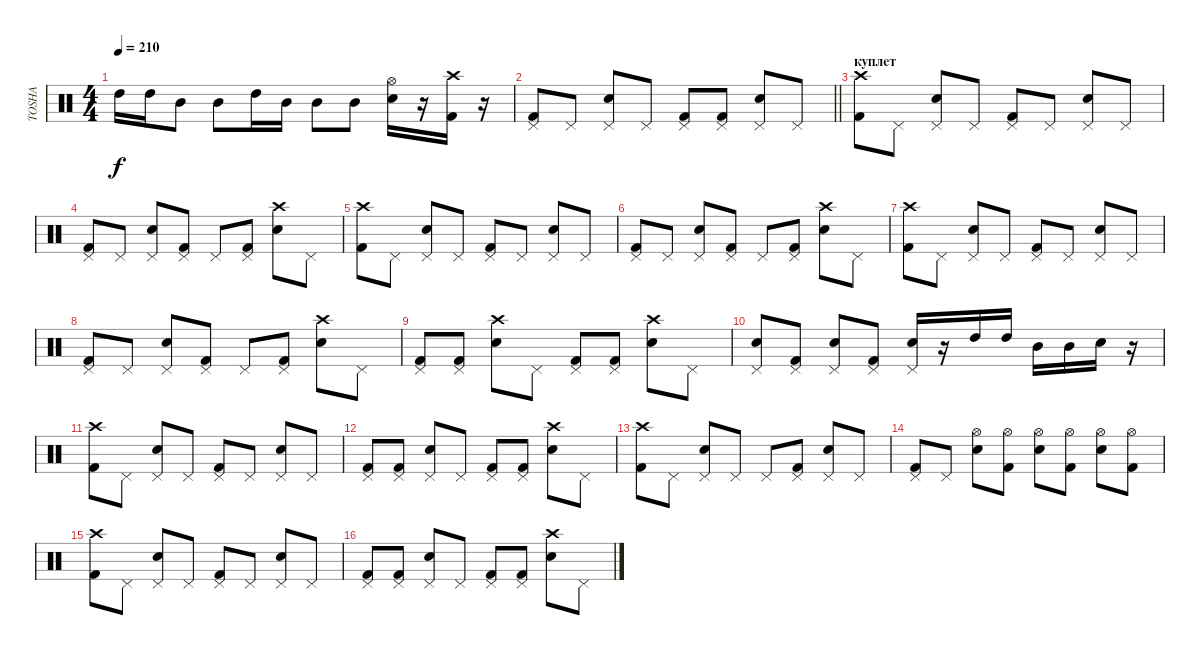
\track ("TOSHA" "TOSHA") {instrument percussion}
\staff {score}
\articulation defaults
\ts (4 4)
\tempo 210
\clef neutral
\ks c "High Tom (hit)".16{dy f} "High Tom (hit)".16 "Mid Tom (hit)".8 "Mid Tom (hit)".8 "High Tom (hit)".16 "Mid Tom (hit)".16 "Mid Tom (hit)".8 "Mid Tom (hit)".8
("Electric Snare (hit)" "Hi-Hat (open)").16 r.16 ("Kick (hit) 2" "Crash high (hit)").16 r.16 |
\barLineRight lightlight
("Kick (hit) 2" "Pedal Hi-Hat (hit)").8 "Pedal Hi-Hat (hit)".8 ("Electric Snare (hit)" "Pedal Hi-Hat (hit)").8 "Pedal Hi-Hat (hit)".8 ("Kick (hit) 2" "Pedal Hi-Hat (hit)").8 ("Kick (hit) 2" "Pedal Hi-Hat (hit)").8 ("Electric Snare (hit)" "Pedal Hi-Hat (hit)").8 "Pedal Hi-Hat (hit)".8 |
\section ("" "куплет")
("Kick (hit) 2" "Crash high (hit)").8 "Pedal Hi-Hat (hit)".8 ("Electric Snare (hit)" "Pedal Hi-Hat (hit)").8 "Pedal Hi-Hat (hit)".8 ("Kick (hit) 2" "Pedal Hi-Hat (hit)").8 "Pedal Hi-Hat (hit)".8 ("Electric Snare (hit)" "Pedal Hi-Hat (hit)").8 "Pedal Hi-Hat (hit)".8 |
("Kick (hit) 2" "Pedal Hi-Hat (hit)").8 "Pedal Hi-Hat (hit)".8 ("Electric Snare (hit)" "Pedal Hi-Hat (hit)").8 ("Kick (hit) 2" "Pedal Hi-Hat (hit)").8 "Pedal Hi-Hat (hit)".8 ("Kick (hit) 2" "Pedal Hi-Hat (hit)").8 ("Electric Snare (hit)" "Crash high (hit)").8 "Pedal Hi-Hat (hit)".8 |
("Kick (hit) 2" "Crash high (hit)").8 "Pedal Hi-Hat (hit)".8 ("Electric Snare (hit)" "Pedal Hi-Hat (hit)").8 "Pedal Hi-Hat (hit)".8 ("Kick (hit) 2" "Pedal Hi-Hat (hit)").8 "Pedal Hi-Hat (hit)".8 ("Electric Snare (hit)" "Pedal Hi-Hat (hit)").8 "Pedal Hi-Hat (hit)".8 |
("Kick (hit) 2" "Pedal Hi-Hat (hit)").8 "Pedal Hi-Hat (hit)".8 ("Electric Snare (hit)" "Pedal Hi-Hat (hit)").8 ("Kick (hit) 2" "Pedal Hi-Hat (hit)").8 "Pedal Hi-Hat (hit)".8 ("Kick (hit) 2" "Pedal Hi-Hat (hit)").8 ("Electric Snare (hit)" "Crash high (hit)").8 "Pedal Hi-Hat (hit)".8 |
("Kick (hit) 2" "Crash high (hit)").8 "Pedal Hi-Hat (hit)".8 ("Electric Snare (hit)" "Pedal Hi-Hat (hit)").8 "Pedal Hi-Hat (hit)".8 ("Kick (hit) 2" "Pedal Hi-Hat (hit)").8 "Pedal Hi-Hat (hit)".8 ("Electric Snare (hit)" "Pedal Hi-Hat (hit)").8 "Pedal Hi-Hat (hit)".8 |
("Kick (hit) 2" "Pedal Hi-Hat (hit)").8 "Pedal Hi-Hat (hit)".8 ("Electric Snare (hit)" "Pedal Hi-Hat (hit)").8 ("Kick (hit) 2" "Pedal Hi-Hat (hit)").8 "Pedal Hi-Hat (hit)".8 ("Kick (hit) 2" "Pedal Hi-Hat (hit)").8 ("Electric Snare (hit)" "Crash high (hit)").8 "Pedal Hi-Hat (hit)".8 |
("Kick (hit) 2" "Pedal Hi-Hat (hit)").8 ("Kick (hit) 2" "Pedal Hi-Hat (hit)").8 ("Electric Snare (hit)" "Crash high (hit)").8 "Pedal Hi-Hat (hit)".8 ("Kick (hit) 2" "Pedal Hi-Hat (hit)").8 ("Kick (hit) 2" "Pedal Hi-Hat (hit)").8 ("Electric Snare (hit)" "Crash high (hit)").8 "Pedal Hi-Hat (hit)".8 |
("Electric Snare (hit)" "Pedal Hi-Hat (hit)").8 ("Kick (hit) 2" "Pedal Hi-Hat (hit)").8 ("Electric Snare (hit)" "Pedal Hi-Hat (hit)").8 ("Kick (hit) 2" "Pedal Hi-Hat (hit)").8 ("Electric Snare (hit)" "Pedal Hi-Hat (hit)").16 r.16 "High Tom (hit)".16 "High Tom (hit)".16 "Mid Tom (hit)".16 "Mid Tom (hit)".16 "Electric Snare (hit)".16 r.16 |
("Kick (hit) 2" "Crash high (hit)").8 "Pedal Hi-Hat (hit)".8 ("Electric Snare (hit)" "Pedal Hi-Hat (hit)").8 "Pedal Hi-Hat (hit)".8 ("Kick (hit) 2" "Pedal Hi-Hat (hit)").8 "Pedal Hi-Hat (hit)".8 ("Electric Snare (hit)" "Pedal Hi-Hat (hit)").8 "Pedal Hi-Hat (hit)".8 |
("Kick (hit) 2" "Pedal Hi-Hat (hit)").8 ("Kick (hit) 2" "Pedal Hi-Hat (hit)").8 ("Electric Snare (hit)" "Pedal Hi-Hat (hit)").8 "Pedal Hi-Hat (hit)".8 ("Kick (hit) 2" "Pedal Hi-Hat (hit)").8 ("Kick (hit) 2" "Pedal Hi-Hat (hit)").8 ("Electric Snare (hit)" "Crash high (hit)").8 "Pedal Hi-Hat (hit)".8 |
("Kick (hit) 2" "Crash high (hit)").8 "Pedal Hi-Hat (hit)".8 ("Electric Snare (hit)" "Pedal Hi-Hat (hit)").8 "Pedal Hi-Hat (hit)".8 "Pedal Hi-Hat (hit)".8 ("Kick (hit) 2" "Pedal Hi-Hat (hit)").8 ("Electric Snare (hit)" "Pedal Hi-Hat (hit)").8 "Pedal Hi-Hat (hit)".8 |
("Kick (hit) 2" "Pedal Hi-Hat (hit)").8 "Pedal Hi-Hat (hit)".8 ("Electric Snare (hit)" "Hi-Hat (open)").8 ("Kick (hit) 2" "Hi-Hat (open)").8 ("Electric Snare (hit)" "Hi-Hat (open)").8 ("Kick (hit) 2" "Hi-Hat (open)").8 ("Electric Snare (hit)" "Hi-Hat (open)").8 ("Kick (hit) 2" "Hi-Hat (open)").8 |
("Kick (hit) 2" "Crash high (hit)").8 "Pedal Hi-Hat (hit)".8 ("Electric Snare (hit)" "Pedal Hi-Hat (hit)").8 "Pedal Hi-Hat (hit)".8 ("Kick (hit) 2" "Pedal Hi-Hat (hit)").8 "Pedal Hi-Hat (hit)".8 ("Electric Snare (hit)" "Pedal Hi-Hat (hit)").8 "Pedal Hi-Hat (hit)".8 |
("Kick (hit) 2" "Pedal Hi-Hat (hit)").8 ("Kick (hit) 2" "Pedal Hi-Hat (hit)").8 ("Electric Snare (hit)" "Pedal Hi-Hat (hit)").8 "Pedal Hi-Hat (hit)".8 ("Kick (hit) 2" "Pedal Hi-Hat (hit)").8 ("Kick (hit) 2" "Pedal Hi-Hat (hit)").8 ("Electric Snare (hit)" "Crash high (hit)").8 "Pedal Hi-Hat (hit)".8
